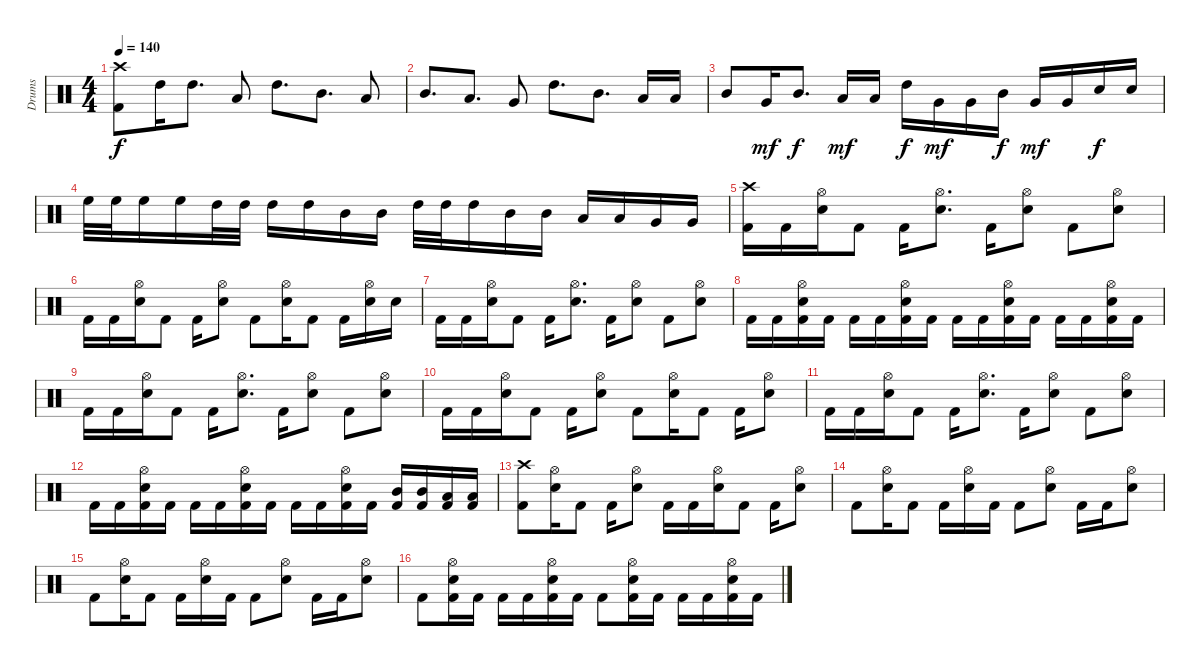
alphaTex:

\track ("Drums" "Drums") {instrument percussion}
\staff {score}
\articulation defaults
\ts (4 4)
\tempo 140
\clef neutral
\ks c
("Crash high (hit)" "Kick (hit) 2").8{dy f} "High Tom (hit)".16 "High Tom (hit)".8{d} "Low Tom (hit)".8 "High Tom (hit)".8{d} "Mid Tom (hit)".8{d} "Low Tom (hit)".8 |
"Mid Tom (hit)".8{d} "Low Tom (hit)".8{d} "Very Low Tom (hit)".8 "High Tom (hit)".8{d} "Mid Tom (hit)".8{d} "Low Tom (hit)".16 "Low Tom (hit)".16 |
"Mid Tom (hit)".8 "Very Low Tom (hit)".16{dy mf} "Mid Tom (hit)".8{d dy f} "Low Tom (hit)".16{dy mf} "Low Tom (hit)".16 "High Tom (hit)".16{dy f} "Very Low Tom (hit)".16{dy mf} "Very Low Tom (hit)".16 "Mid Tom (hit)".16{dy f} "Very Low Tom (hit)".16{dy mf} "Very Low Tom (hit)".16 "Snare (hit) 2".16{dy f} "Snare (hit) 2".16 |
"High Floor Tom (hit)".32 "High Floor Tom (hit)".32 "High Floor Tom (hit)".16 "High Floor Tom (hit)".16 "High Tom (hit)".32 "High Tom (hit)".32 "High Tom (hit)".16 "High Tom (hit)".16 "Mid Tom (hit)".16 "Mid Tom (hit)".16 "High Tom (hit)".32 "High Tom (hit)".32 "High Tom (hit)".16 "Mid Tom (hit)".16 "Mid Tom (hit)".16 "Low Tom (hit)".16 "Low Tom (hit)".16 "Very Low Tom (hit)".16 "Very Low Tom (hit)".16 |
("Crash high (hit)" "Kick (hit) 2").16 "Kick (hit) 2".16 ("Hi-Hat (open)" "Snare (hit) 2").16 "Kick (hit) 2".8 "Kick (hit) 2".16 ("Hi-Hat (open)" "Snare (hit) 2").8{d} "Kick (hit) 2".16 ("Hi-Hat (open)" "Snare (hit) 2").8 "Kick (hit) 2".8 ("Hi-Hat (open)" "Snare (hit) 2").8 |
"Kick (hit) 2".16 "Kick (hit) 2".16 ("Hi-Hat (open)" "Snare (hit) 2").16 "Kick (hit) 2".8 "Kick (hit) 2".16 ("Hi-Hat (open)" "Snare (hit) 2").8 "Kick (hit) 2".8 ("Hi-Hat (open)" "Snare (hit) 2").16 "Kick (hit) 2".8 "Kick (hit) 2".16 ("Hi-Hat (open)" "Snare (hit) 2").16 "Snare (hit) 2".16 |
"Kick (hit) 2".16 "Kick (hit) 2".16 ("Hi-Hat (open)" "Snare (hit) 2").16 "Kick (hit) 2".8 "Kick (hit) 2".16 ("Hi-Hat (open)" "Snare (hit) 2").8{d} "Kick (hit) 2".16 ("Hi-Hat (open)" "Snare (hit) 2").8 "Kick (hit) 2".8 ("Hi-Hat (open)" "Snare (hit) 2").8 |
"Kick (hit) 2".16 "Kick (hit) 2".16 ("Hi-Hat (open)" "Snare (hit) 2" "Kick (hit) 2").16 "Kick (hit) 2".16 "Kick (hit) 2".16 "Kick (hit) 2".16 ("Hi-Hat (open)" "Snare (hit) 2" "Kick (hit) 2").16 "Kick (hit) 2".16 "Kick (hit) 2".16 "Kick (hit) 2".16 ("Hi-Hat (open)" "Snare (hit) 2" "Kick (hit) 2").16 "Kick (hit) 2".16 "Kick (hit) 2".16 "Kick (hit) 2".16 ("Hi-Hat (open)" "Snare (hit) 2" "Kick (hit) 2").16 "Kick (hit) 2".16 |
"Kick (hit) 2".16 "Kick (hit) 2".16 ("Hi-Hat (open)" "Snare (hit) 2").16 "Kick (hit) 2".8 "Kick (hit) 2".16 ("Hi-Hat (open)" "Snare (hit) 2").8{d} "Kick (hit) 2".16 ("Hi-Hat (open)" "Snare (hit) 2").8 "Kick (hit) 2".8 ("Hi-Hat (open)" "Snare (hit) 2").8 |
"Kick (hit) 2".16 "Kick (hit) 2".16 ("Hi-Hat (open)" "Snare (hit) 2").16 "Kick (hit) 2".8 "Kick (hit) 2".16 ("Hi-Hat (open)" "Snare (hit) 2").8 "Kick (hit) 2".8 ("Hi-Hat (open)" "Snare (hit) 2").16 "Kick (hit) 2".8 "Kick (hit) 2".16 ("Hi-Hat (open)" "Snare (hit) 2").8 |
"Kick (hit) 2".16 "Kick (hit) 2".16 ("Hi-Hat (open)" "Snare (hit) 2").16 "Kick (hit) 2".8 "Kick (hit) 2".16 ("Hi-Hat (open)" "Snare (hit) 2").8{d} "Kick (hit) 2".16 ("Hi-Hat (open)" "Snare (hit) 2").8 "Kick (hit) 2".8 ("Hi-Hat (open)" "Snare (hit) 2").8 |
"Kick (hit) 2".16 "Kick (hit) 2".16 ("Hi-Hat (open)" "Snare (hit) 2" "Kick (hit) 2").16 "Kick (hit) 2".16 "Kick (hit) 2".16 "Kick (hit) 2".16 ("Hi-Hat (open)" "Snare (hit) 2" "Kick (hit) 2").16 "Kick (hit) 2".16 "Kick (hit) 2".16 "Kick (hit) 2".16 ("Hi-Hat (open)" "Snare (hit) 2" "Kick (hit) 2").16 "Kick (hit) 2".16 ("Mid Tom (hit)" "Kick (hit) 2").16 ("Mid Tom (hit)" "Kick (hit) 2").16 ("Low Tom (hit)" "Kick (hit) 2").16 ("Low Tom (hit)" "Kick (hit) 2").16 |
("Crash high (hit)" "Kick (hit) 2").8 ("Hi-Hat (open)" "Snare (hit) 2").16 "Kick (hit) 2".8 "Kick (hit) 2".16 ("Hi-Hat (open)" "Snare (hit) 2").8 "Kick (hit) 2".16 "Kick (hit) 2".16 ("Hi-Hat (open)" "Snare (hit) 2").16 "Kick (hit) 2".8 "Kick (hit) 2".16 ("Hi-Hat (open)" "Snare (hit) 2").8 |
"Kick (hit) 2".8 ("Hi-Hat (open)" "Snare (hit) 2").16 "Kick (hit) 2".8 "Kick (hit) 2".16 ("Hi-Hat (open)" "Snare (hit) 2").16 "Kick (hit) 2".16 "Kick (hit) 2".8 ("Hi-Hat (open)" "Snare (hit) 2").8 "Kick (hit) 2".16 "Kick (hit) 2".16 ("Hi-Hat (open)" "Snare (hit) 2").8 |
"Kick (hit) 2".8 ("Hi-Hat (open)" "Snare (hit) 2").16 "Kick (hit) 2".8 "Kick (hit) 2".16 ("Hi-Hat (open)" "Snare (hit) 2").16 "Kick (hit) 2".16 "Kick (hit) 2".8 ("Hi-Hat (open)" "Snare (hit) 2").8 "Kick (hit) 2".16 "Kick (hit) 2".16 ("Hi-Hat (open)" "Snare (hit) 2").8 |
"Kick (hit) 2".8 ("Hi-Hat (open)" "Snare (hit) 2" "Kick (hit) 2").16 "Kick (hit) 2".16 "Kick (hit) 2".16 "Kick (hit) 2".16 ("Hi-Hat (open)" "Snare (hit) 2" "Kick (hit) 2").16 "Kick (hit) 2".16 "Kick (hit) 2".8 ("Hi-Hat (open)" "Snare (hit) 2" "Kick (hit) 2").16 "Kick (hit) 2".16 "Kick (hit) 2".16 "Kick (hit) 2".16 ("Hi-Hat (open)" "Snare (hit) 2" "Kick (hit) 2").16 "Kick (hit) 2".16
